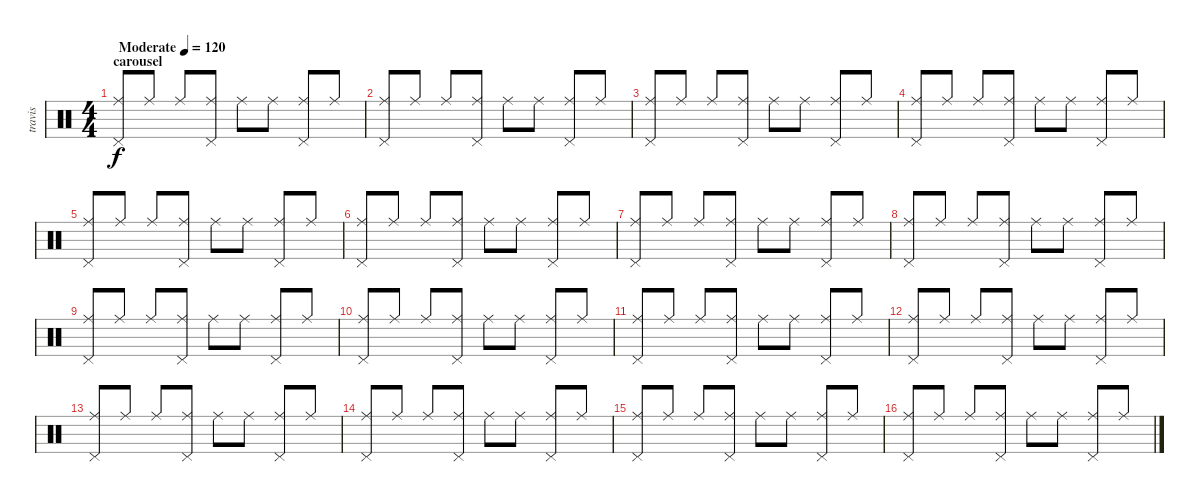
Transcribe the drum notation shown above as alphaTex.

\track ("travis" "travis") {instrument percussion}
\staff {score}
\articulation defaults
\ts (4 4)
\section ("" "carousel")
\tempo (120 "Moderate")
\tempo 145
\tempo (120 "Moderate")
\clef neutral
\ks c
("Ride (middle)" "Pedal Hi-Hat (hit)").8{dy f} "Ride (middle)".8 "Ride (middle)".8 ("Ride (middle)" "Pedal Hi-Hat (hit)").8 "Ride (middle)".8 "Ride (middle)".8 ("Ride (middle)" "Pedal Hi-Hat (hit)").8 "Ride (middle)".8 |
("Ride (middle)" "Pedal Hi-Hat (hit)").8 "Ride (middle)".8 "Ride (middle)".8 ("Ride (middle)" "Pedal Hi-Hat (hit)").8 "Ride (middle)".8 "Ride (middle)".8 ("Ride (middle)" "Pedal Hi-Hat (hit)").8 "Ride (middle)".8 |
("Ride (middle)" "Pedal Hi-Hat (hit)").8 "Ride (middle)".8 "Ride (middle)".8 ("Ride (middle)" "Pedal Hi-Hat (hit)").8 "Ride (middle)".8 "Ride (middle)".8 ("Ride (middle)" "Pedal Hi-Hat (hit)").8 "Ride (middle)".8 |
("Ride (middle)" "Pedal Hi-Hat (hit)").8 "Ride (middle)".8 "Ride (middle)".8 ("Ride (middle)" "Pedal Hi-Hat (hit)").8 "Ride (middle)".8 "Ride (middle)".8 ("Ride (middle)" "Pedal Hi-Hat (hit)").8 "Ride (middle)".8 |
("Ride (middle)" "Pedal Hi-Hat (hit)").8 "Ride (middle)".8 "Ride (middle)".8 ("Ride (middle)" "Pedal Hi-Hat (hit)").8 "Ride (middle)".8 "Ride (middle)".8 ("Ride (middle)" "Pedal Hi-Hat (hit)").8 "Ride (middle)".8 |
("Ride (middle)" "Pedal Hi-Hat (hit)").8 "Ride (middle)".8 "Ride (middle)".8 ("Ride (middle)" "Pedal Hi-Hat (hit)").8 "Ride (middle)".8 "Ride (middle)".8 ("Ride (middle)" "Pedal Hi-Hat (hit)").8 "Ride (middle)".8 |
("Ride (middle)" "Pedal Hi-Hat (hit)").8 "Ride (middle)".8 "Ride (middle)".8 ("Ride (middle)" "Pedal Hi-Hat (hit)").8 "Ride (middle)".8 "Ride (middle)".8 ("Ride (middle)" "Pedal Hi-Hat (hit)").8 "Ride (middle)".8 |
("Ride (middle)" "Pedal Hi-Hat (hit)").8 "Ride (middle)".8 "Ride (middle)".8 ("Ride (middle)" "Pedal Hi-Hat (hit)").8 "Ride (middle)".8 "Ride (middle)".8 ("Ride (middle)" "Pedal Hi-Hat (hit)").8 "Ride (middle)".8 |
("Ride (middle)" "Pedal Hi-Hat (hit)").8 "Ride (middle)".8 "Ride (middle)".8 ("Ride (middle)" "Pedal Hi-Hat (hit)").8 "Ride (middle)".8 "Ride (middle)".8 ("Ride (middle)" "Pedal Hi-Hat (hit)").8 "Ride (middle)".8 |
("Ride (middle)" "Pedal Hi-Hat (hit)").8 "Ride (middle)".8 "Ride (middle)".8 ("Ride (middle)" "Pedal Hi-Hat (hit)").8 "Ride (middle)".8 "Ride (middle)".8 ("Ride (middle)" "Pedal Hi-Hat (hit)").8 "Ride (middle)".8 |
("Ride (middle)" "Pedal Hi-Hat (hit)").8 "Ride (middle)".8 "Ride (middle)".8 ("Ride (middle)" "Pedal Hi-Hat (hit)").8 "Ride (middle)".8 "Ride (middle)".8 ("Ride (middle)" "Pedal Hi-Hat (hit)").8 "Ride (middle)".8 |
("Ride (middle)" "Pedal Hi-Hat (hit)").8 "Ride (middle)".8 "Ride (middle)".8 ("Ride (middle)" "Pedal Hi-Hat (hit)").8 "Ride (middle)".8 "Ride (middle)".8 ("Ride (middle)" "Pedal Hi-Hat (hit)").8 "Ride (middle)".8 |
("Ride (middle)" "Pedal Hi-Hat (hit)").8 "Ride (middle)".8 "Ride (middle)".8 ("Ride (middle)" "Pedal Hi-Hat (hit)").8 "Ride (middle)".8 "Ride (middle)".8 ("Ride (middle)" "Pedal Hi-Hat (hit)").8 "Ride (middle)".8 |
("Ride (middle)" "Pedal Hi-Hat (hit)").8 "Ride (middle)".8 "Ride (middle)".8 ("Ride (middle)" "Pedal Hi-Hat (hit)").8 "Ride (middle)".8 "Ride (middle)".8 ("Ride (middle)" "Pedal Hi-Hat (hit)").8 "Ride (middle)".8 |
("Ride (middle)" "Pedal Hi-Hat (hit)").8 "Ride (middle)".8 "Ride (middle)".8 ("Ride (middle)" "Pedal Hi-Hat (hit)").8 "Ride (middle)".8 "Ride (middle)".8 ("Ride (middle)" "Pedal Hi-Hat (hit)").8 "Ride (middle)".8 |
("Ride (middle)" "Pedal Hi-Hat (hit)").8 "Ride (middle)".8 "Ride (middle)".8 ("Ride (middle)" "Pedal Hi-Hat (hit)").8 "Ride (middle)".8 "Ride (middle)".8 ("Ride (middle)" "Pedal Hi-Hat (hit)").8 "Ride (middle)".8
